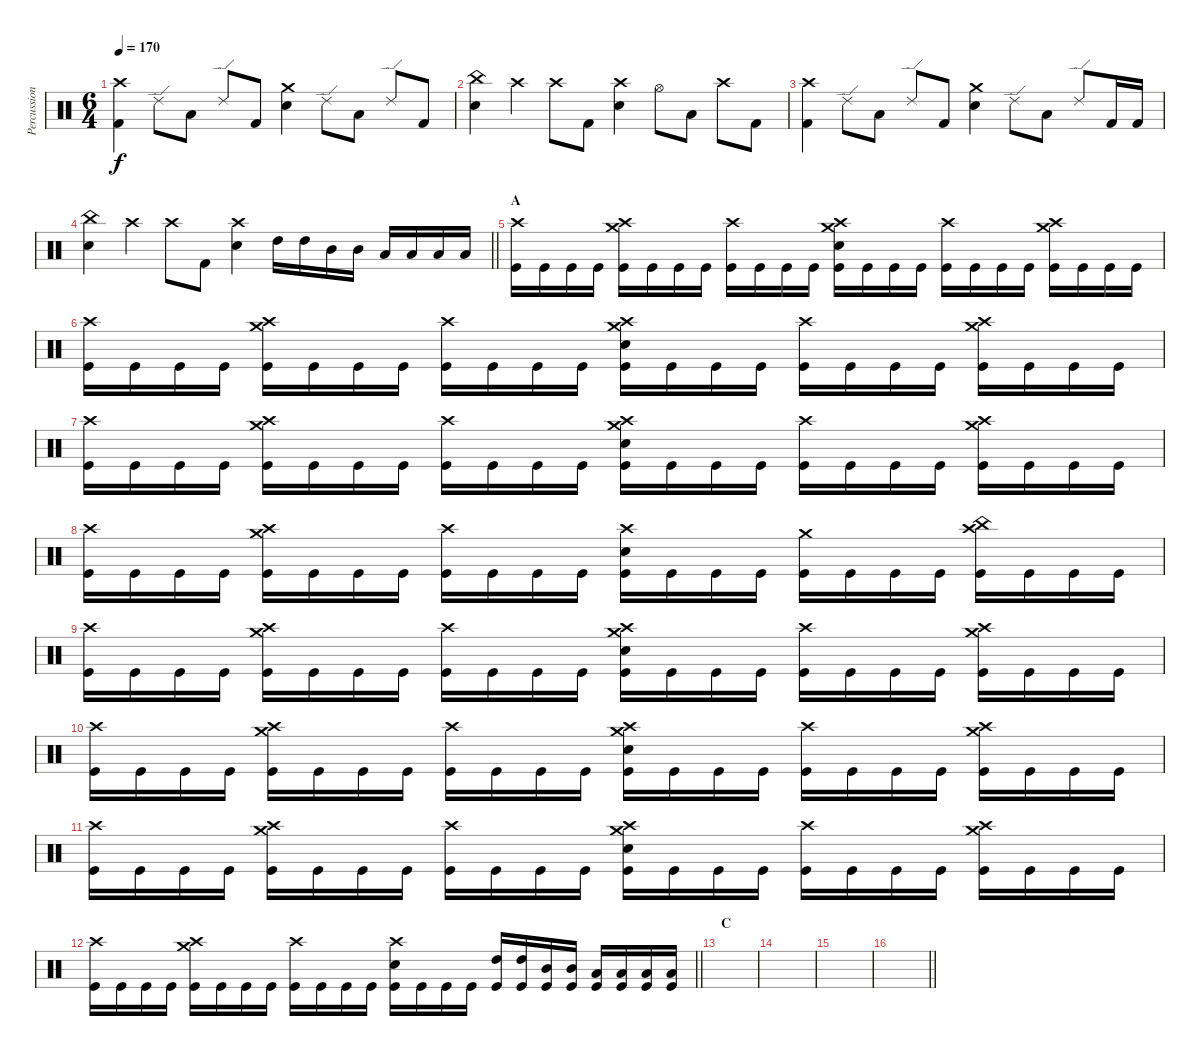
\track ("Percussions" "Percussion") {instrument percussion}
\staff {score}
\articulation defaults
\ts (6 4)
\tempo 170
\clef neutral
\ks c
("Crash high (hit)" "Kick (hit) 2").4{dy f} "Ride (edge) 2".8 "Low Tom (hit)".8 "Ride (edge) 2".8 "Kick (hit) 2".8 ("Crash medium (hit)" "Snare (hit) 2").4 "Ride (edge) 2".8 "Low Floor Tom (hit)".8 "Ride (edge) 2".8 "Kick (hit) 2".8 |
("China (hit)" "Snare (hit) 2").4 "Crash high (hit)".4 "Crash high (hit)".8 "Kick (hit) 2".8 ("Crash high (hit)" "Snare (hit) 2").4 "Hi-Hat (open)".8 "Low Tom (hit)".8 "Crash high (hit)".8 "Kick (hit) 2".8 |
("Crash high (hit)" "Kick (hit) 2").4 "Ride (edge) 2".8 "Low Tom (hit)".8 "Ride (edge) 2".8 "Kick (hit) 2".8 ("Crash medium (hit)" "Snare (hit) 2").4 "Ride (edge) 2".8 "Low Floor Tom (hit)".8 "Ride (edge) 2".8 "Kick (hit) 2".16 "Kick (hit) 2".16 |
\barLineRight lightlight
("China (hit)" "Snare (hit) 2").4 "Crash high (hit)".4 "Crash high (hit)".8 "Kick (hit) 2".8 ("Crash high (hit)" "Snare (hit) 2").4 "High Tom (hit)".16 "High Tom (hit)".16 "Mid Tom (hit)".16 "Mid Tom (hit)".16 "Low Tom (hit)".16 "Low Tom (hit)".16 "Low Floor Tom (hit)".16 "Low Floor Tom (hit)".16 |
\section ("" "A")
("Crash high (hit)" "Kick (hit)").16 "Kick (hit)".16 "Kick (hit)".16 "Kick (hit)".16 ("Crash high (hit)" "Crash medium (hit)" "Kick (hit)").16 "Kick (hit)".16 "Kick (hit)".16 "Kick (hit)".16 ("Crash high (hit)" "Kick (hit)").16 "Kick (hit)".16 "Kick (hit)".16 "Kick (hit)".16 ("Crash high (hit)" "Crash medium (hit)" "Snare (hit) 2" "Kick (hit)").16 "Kick (hit)".16 "Kick (hit)".16 "Kick (hit)".16 ("Crash high (hit)" "Kick (hit)").16 "Kick (hit)".16 "Kick (hit)".16 "Kick (hit)".16 ("Crash high (hit)" "Crash medium (hit)" "Kick (hit)").16 "Kick (hit)".16 "Kick (hit)".16 "Kick (hit)".16 |
("Crash high (hit)" "Kick (hit)").16 "Kick (hit)".16 "Kick (hit)".16 "Kick (hit)".16 ("Crash high (hit)" "Crash medium (hit)" "Kick (hit)").16 "Kick (hit)".16 "Kick (hit)".16 "Kick (hit)".16 ("Crash high (hit)" "Kick (hit)").16 "Kick (hit)".16 "Kick (hit)".16 "Kick (hit)".16 ("Crash high (hit)" "Crash medium (hit)" "Snare (hit) 2" "Kick (hit)").16 "Kick (hit)".16 "Kick (hit)".16 "Kick (hit)".16 ("Crash high (hit)" "Kick (hit)").16 "Kick (hit)".16 "Kick (hit)".16 "Kick (hit)".16 ("Crash high (hit)" "Crash medium (hit)" "Kick (hit)").16 "Kick (hit)".16 "Kick (hit)".16 "Kick (hit)".16 |
("Crash high (hit)" "Kick (hit)").16 "Kick (hit)".16 "Kick (hit)".16 "Kick (hit)".16 ("Crash high (hit)" "Crash medium (hit)" "Kick (hit)").16 "Kick (hit)".16 "Kick (hit)".16 "Kick (hit)".16 ("Crash high (hit)" "Kick (hit)").16 "Kick (hit)".16 "Kick (hit)".16 "Kick (hit)".16 ("Crash high (hit)" "Crash medium (hit)" "Snare (hit) 2" "Kick (hit)").16 "Kick (hit)".16 "Kick (hit)".16 "Kick (hit)".16 ("Crash high (hit)" "Kick (hit)").16 "Kick (hit)".16 "Kick (hit)".16 "Kick (hit)".16 ("Crash high (hit)" "Crash medium (hit)" "Kick (hit)").16 "Kick (hit)".16 "Kick (hit)".16 "Kick (hit)".16 |
("Crash high (hit)" "Kick (hit)").16 "Kick (hit)".16 "Kick (hit)".16 "Kick (hit)".16 ("Crash high (hit)" "Crash medium (hit)" "Kick (hit)").16 "Kick (hit)".16 "Kick (hit)".16 "Kick (hit)".16 ("Crash high (hit)" "Kick (hit)").16 "Kick (hit)".16 "Kick (hit)".16 "Kick (hit)".16 ("Crash high (hit)" "Snare (hit) 2" "Kick (hit)").16 "Kick (hit)".16 "Kick (hit)".16 "Kick (hit)".16 ("Crash medium (hit)" "Kick (hit)").16 "Kick (hit)".16 "Kick (hit)".16 "Kick (hit)".16 ("Crash high (hit)" "China (hit)" "Kick (hit)").16 "Kick (hit)".16 "Kick (hit)".16 "Kick (hit)".16 |
("Crash high (hit)" "Kick (hit)").16 "Kick (hit)".16 "Kick (hit)".16 "Kick (hit)".16 ("Crash high (hit)" "Crash medium (hit)" "Kick (hit)").16 "Kick (hit)".16 "Kick (hit)".16 "Kick (hit)".16 ("Crash high (hit)" "Kick (hit)").16 "Kick (hit)".16 "Kick (hit)".16 "Kick (hit)".16 ("Crash high (hit)" "Crash medium (hit)" "Snare (hit) 2" "Kick (hit)").16 "Kick (hit)".16 "Kick (hit)".16 "Kick (hit)".16 ("Crash high (hit)" "Kick (hit)").16 "Kick (hit)".16 "Kick (hit)".16 "Kick (hit)".16 ("Crash high (hit)" "Crash medium (hit)" "Kick (hit)").16 "Kick (hit)".16 "Kick (hit)".16 "Kick (hit)".16 |
("Crash high (hit)" "Kick (hit)").16 "Kick (hit)".16 "Kick (hit)".16 "Kick (hit)".16 ("Crash high (hit)" "Crash medium (hit)" "Kick (hit)").16 "Kick (hit)".16 "Kick (hit)".16 "Kick (hit)".16 ("Crash high (hit)" "Kick (hit)").16 "Kick (hit)".16 "Kick (hit)".16 "Kick (hit)".16 ("Crash high (hit)" "Crash medium (hit)" "Snare (hit) 2" "Kick (hit)").16 "Kick (hit)".16 "Kick (hit)".16 "Kick (hit)".16 ("Crash high (hit)" "Kick (hit)").16 "Kick (hit)".16 "Kick (hit)".16 "Kick (hit)".16 ("Crash high (hit)" "Crash medium (hit)" "Kick (hit)").16 "Kick (hit)".16 "Kick (hit)".16 "Kick (hit)".16 |
("Crash high (hit)" "Kick (hit)").16 "Kick (hit)".16 "Kick (hit)".16 "Kick (hit)".16 ("Crash high (hit)" "Crash medium (hit)" "Kick (hit)").16 "Kick (hit)".16 "Kick (hit)".16 "Kick (hit)".16 ("Crash high (hit)" "Kick (hit)").16 "Kick (hit)".16 "Kick (hit)".16 "Kick (hit)".16 ("Crash high (hit)" "Crash medium (hit)" "Snare (hit) 2" "Kick (hit)").16 "Kick (hit)".16 "Kick (hit)".16 "Kick (hit)".16 ("Crash high (hit)" "Kick (hit)").16 "Kick (hit)".16 "Kick (hit)".16 "Kick (hit)".16 ("Crash high (hit)" "Crash medium (hit)" "Kick (hit)").16 "Kick (hit)".16 "Kick (hit)".16 "Kick (hit)".16 |
\barLineRight lightlight
("Crash high (hit)" "Kick (hit)").16 "Kick (hit)".16 "Kick (hit)".16 "Kick (hit)".16 ("Crash high (hit)" "Crash medium (hit)" "Kick (hit)").16 "Kick (hit)".16 "Kick (hit)".16 "Kick (hit)".16 ("Crash high (hit)" "Kick (hit)").16 "Kick (hit)".16 "Kick (hit)".16 "Kick (hit)".16 ("Crash high (hit)" "Snare (hit) 2" "Kick (hit)").16 "Kick (hit)".16 "Kick (hit)".16 "Kick (hit)".16 ("High Tom (hit)" "Kick (hit)").16 ("High Tom (hit)" "Kick (hit)").16 ("Mid Tom (hit)" "Kick (hit)").16 ("Mid Tom (hit)" "Kick (hit)").16 ("Low Tom (hit)" "Kick (hit)").16 ("Low Tom (hit)" "Kick (hit)").16 ("Low Floor Tom (hit)" "Kick (hit)").16 ("Low Floor Tom (hit)" "Kick (hit)").16 |
\section ("" "C")
|
|
|
\barLineRight lightlight
